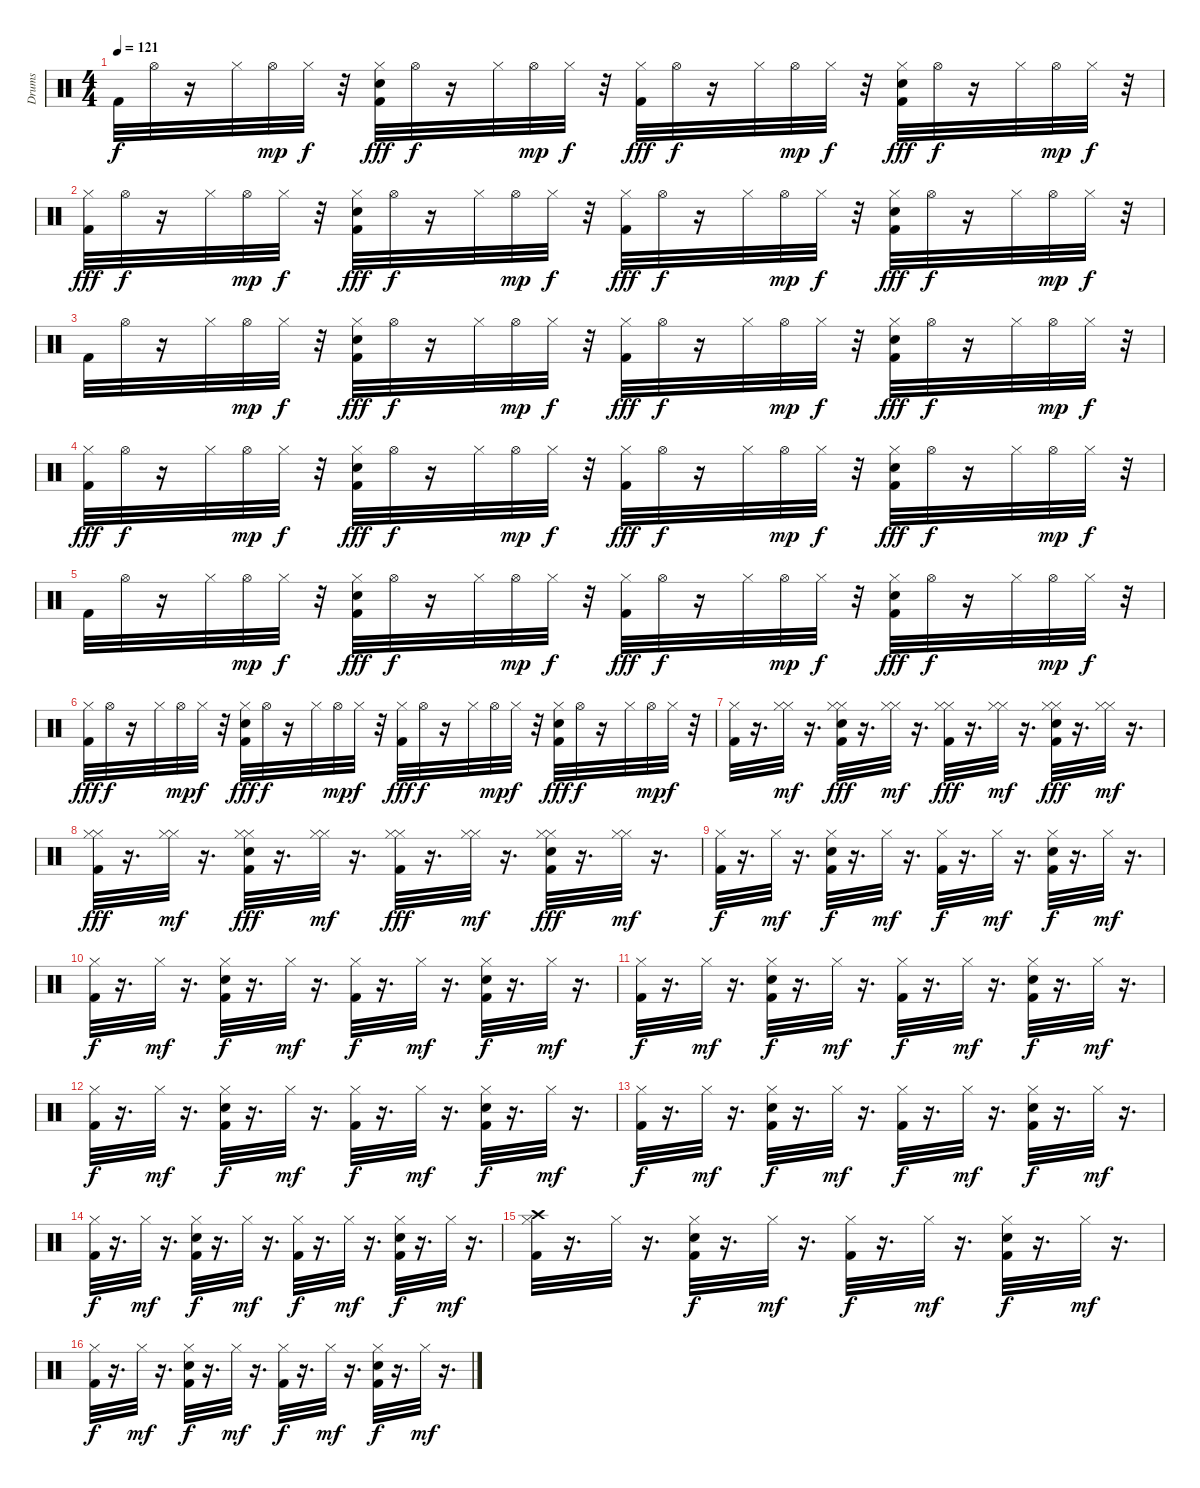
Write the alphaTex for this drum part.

\track ("Drums" "Drums") {instrument percussion}
\staff {score}
\articulation defaults
\ts (4 4)
\tempo 121
\clef neutral
\ks c "Kick (hit) 2".32{dy f} "Hi-Hat (open)".32
r.16 "Hi-Hat (closed)".32 "Hi-Hat (open)".32{dy mp} "Hi-Hat (closed)".32{dy f} r.32 ("Kick (hit) 2" "Snare (hit) 2" "Hi-Hat (closed)").32{dy fff} "Hi-Hat (open)".32{dy f} r.16 "Hi-Hat (closed)".32 "Hi-Hat (open)".32{dy mp} "Hi-Hat (closed)".32{dy f} r.32 ("Kick (hit) 2" "Hi-Hat (closed)").32{dy fff} "Hi-Hat (open)".32{dy f} r.16 "Hi-Hat (closed)".32 "Hi-Hat (open)".32{dy mp} "Hi-Hat (closed)".32{dy f} r.32 ("Kick (hit) 2" "Snare (hit) 2" "Hi-Hat (closed)").32{dy fff} "Hi-Hat (open)".32{dy f} r.16 "Hi-Hat (closed)".32 "Hi-Hat (open)".32{dy mp} "Hi-Hat (closed)".32{dy f} r.32 |
("Kick (hit) 2" "Hi-Hat (closed)").32{dy fff} "Hi-Hat (open)".32{dy f} r.16 "Hi-Hat (closed)".32 "Hi-Hat (open)".32{dy mp} "Hi-Hat (closed)".32{dy f} r.32 ("Kick (hit) 2" "Snare (hit) 2" "Hi-Hat (closed)").32{dy fff} "Hi-Hat (open)".32{dy f} r.16 "Hi-Hat (closed)".32 "Hi-Hat (open)".32{dy mp} "Hi-Hat (closed)".32{dy f} r.32 ("Kick (hit) 2" "Hi-Hat (closed)").32{dy fff} "Hi-Hat (open)".32{dy f} r.16 "Hi-Hat (closed)".32 "Hi-Hat (open)".32{dy mp} "Hi-Hat (closed)".32{dy f} r.32 ("Kick (hit) 2" "Snare (hit) 2" "Hi-Hat (closed)").32{dy fff} "Hi-Hat (open)".32{dy f} r.16 "Hi-Hat (closed)".32 "Hi-Hat (open)".32{dy mp} "Hi-Hat (closed)".32{dy f} r.32 |
"Kick (hit) 2".32 "Hi-Hat (open)".32 r.16 "Hi-Hat (closed)".32 "Hi-Hat (open)".32{dy mp} "Hi-Hat (closed)".32{dy f} r.32 ("Kick (hit) 2" "Snare (hit) 2" "Hi-Hat (closed)").32{dy fff} "Hi-Hat (open)".32{dy f} r.16 "Hi-Hat (closed)".32 "Hi-Hat (open)".32{dy mp} "Hi-Hat (closed)".32{dy f} r.32 ("Kick (hit) 2" "Hi-Hat (closed)").32{dy fff} "Hi-Hat (open)".32{dy f} r.16 "Hi-Hat (closed)".32 "Hi-Hat (open)".32{dy mp} "Hi-Hat (closed)".32{dy f} r.32 ("Kick (hit) 2" "Snare (hit) 2" "Hi-Hat (closed)").32{dy fff} "Hi-Hat (open)".32{dy f} r.16 "Hi-Hat (closed)".32 "Hi-Hat (open)".32{dy mp} "Hi-Hat (closed)".32{dy f} r.32 |
("Kick (hit) 2" "Hi-Hat (closed)").32{dy fff} "Hi-Hat (open)".32{dy f} r.16 "Hi-Hat (closed)".32 "Hi-Hat (open)".32{dy mp} "Hi-Hat (closed)".32{dy f} r.32 ("Kick (hit) 2" "Snare (hit) 2" "Hi-Hat (closed)").32{dy fff} "Hi-Hat (open)".32{dy f} r.16 "Hi-Hat (closed)".32 "Hi-Hat (open)".32{dy mp} "Hi-Hat (closed)".32{dy f} r.32 ("Kick (hit) 2" "Hi-Hat (closed)").32{dy fff} "Hi-Hat (open)".32{dy f} r.16 "Hi-Hat (closed)".32 "Hi-Hat (open)".32{dy mp} "Hi-Hat (closed)".32{dy f} r.32 ("Kick (hit) 2" "Snare (hit) 2" "Hi-Hat (closed)").32{dy fff} "Hi-Hat (open)".32{dy f} r.16 "Hi-Hat (closed)".32 "Hi-Hat (open)".32{dy mp} "Hi-Hat (closed)".32{dy f} r.32 |
"Kick (hit) 2".32 "Hi-Hat (open)".32 r.16 "Hi-Hat (closed)".32 "Hi-Hat (open)".32{dy mp} "Hi-Hat (closed)".32{dy f} r.32 ("Kick (hit) 2" "Snare (hit) 2" "Hi-Hat (closed)").32{dy fff} "Hi-Hat (open)".32{dy f} r.16 "Hi-Hat (closed)".32 "Hi-Hat (open)".32{dy mp} "Hi-Hat (closed)".32{dy f} r.32 ("Kick (hit) 2" "Hi-Hat (closed)").32{dy fff} "Hi-Hat (open)".32{dy f} r.16 "Hi-Hat (closed)".32 "Hi-Hat (open)".32{dy mp} "Hi-Hat (closed)".32{dy f} r.32 ("Kick (hit) 2" "Snare (hit) 2" "Hi-Hat (closed)").32{dy fff} "Hi-Hat (open)".32{dy f} r.16 "Hi-Hat (closed)".32 "Hi-Hat (open)".32{dy mp} "Hi-Hat (closed)".32{dy f} r.32 |
("Kick (hit) 2" "Hi-Hat (closed)").32{dy fff} "Hi-Hat (open)".32{dy f} r.16 "Hi-Hat (closed)".32 "Hi-Hat (open)".32{dy mp} "Hi-Hat (closed)".32{dy f} r.32 ("Kick (hit) 2" "Snare (hit) 2" "Hi-Hat (closed)").32{dy fff} "Hi-Hat (open)".32{dy f} r.16 "Hi-Hat (closed)".32 "Hi-Hat (open)".32{dy mp} "Hi-Hat (closed)".32{dy f} r.32 ("Kick (hit) 2" "Hi-Hat (closed)").32{dy fff} "Hi-Hat (open)".32{dy f} r.16 "Hi-Hat (closed)".32 "Hi-Hat (open)".32{dy mp} "Hi-Hat (closed)".32{dy f} r.32 ("Kick (hit) 2" "Snare (hit) 2" "Hi-Hat (closed)").32{dy fff} "Hi-Hat (open)".32{dy f} r.16 "Hi-Hat (closed)".32 "Hi-Hat (open)".32{dy mp} "Hi-Hat (closed)".32{dy f} r.32 |
("Kick (hit) 2" "Hi-Hat (closed)").32 r.16{d} ("Hi-Hat (closed)" "Hi-Hat (closed)").32{dy mf} r.16{d} ("Kick (hit) 2" "Hi-Hat (closed)" "Snare (hit) 2" "Hi-Hat (closed)").32{dy fff} r.16{d} ("Hi-Hat (closed)" "Hi-Hat (closed)").32{dy mf} r.16{d} ("Hi-Hat (closed)" "Kick (hit) 2" "Hi-Hat (closed)").32{dy fff} r.16{d} ("Hi-Hat (closed)" "Hi-Hat (closed)").32{dy mf} r.16{d} ("Kick (hit) 2" "Hi-Hat (closed)" "Snare (hit) 2" "Hi-Hat (closed)").32{dy fff} r.16{d} ("Hi-Hat (closed)" "Hi-Hat (closed)").32{dy mf} r.16{d} |
("Hi-Hat (closed)" "Kick (hit) 2" "Hi-Hat (closed)").32{dy fff} r.16{d} ("Hi-Hat (closed)" "Hi-Hat (closed)").32{dy mf} r.16{d} ("Kick (hit) 2" "Hi-Hat (closed)" "Snare (hit) 2" "Hi-Hat (closed)").32{dy fff} r.16{d} ("Hi-Hat (closed)" "Hi-Hat (closed)").32{dy mf} r.16{d} ("Hi-Hat (closed)" "Kick (hit) 2" "Hi-Hat (closed)").32{dy fff} r.16{d} ("Hi-Hat (closed)" "Hi-Hat (closed)").32{dy mf} r.16{d} ("Kick (hit) 2" "Hi-Hat (closed)" "Snare (hit) 2" "Hi-Hat (closed)").32{dy fff} r.16{d} ("Hi-Hat (closed)" "Hi-Hat (closed)").32{dy mf} r.16{d} |
("Kick (hit) 2" "Hi-Hat (closed)").32{dy f} r.16{d} "Hi-Hat (closed)".32{dy mf} r.16{d} ("Kick (hit) 2" "Hi-Hat (closed)" "Snare (hit) 2").32{dy f} r.16{d} "Hi-Hat (closed)".32{dy mf} r.16{d} ("Hi-Hat (closed)" "Kick (hit) 2").32{dy f} r.16{d} "Hi-Hat (closed)".32{dy mf} r.16{d} ("Kick (hit) 2" "Hi-Hat (closed)" "Snare (hit) 2").32{dy f} r.16{d} "Hi-Hat (closed)".32{dy mf} r.16{d} |
("Hi-Hat (closed)" "Kick (hit) 2").32{dy f} r.16{d} "Hi-Hat (closed)".32{dy mf} r.16{d} ("Kick (hit) 2" "Hi-Hat (closed)" "Snare (hit) 2").32{dy f} r.16{d} "Hi-Hat (closed)".32{dy mf} r.16{d} ("Hi-Hat (closed)" "Kick (hit) 2").32{dy f} r.16{d} "Hi-Hat (closed)".32{dy mf} r.16{d} ("Kick (hit) 2" "Hi-Hat (closed)" "Snare (hit) 2").32{dy f} r.16{d} "Hi-Hat (closed)".32{dy mf} r.16{d} |
("Kick (hit) 2" "Hi-Hat (closed)").32{dy f} r.16{d} "Hi-Hat (closed)".32{dy mf} r.16{d} ("Kick (hit) 2" "Hi-Hat (closed)" "Snare (hit) 2").32{dy f} r.16{d} "Hi-Hat (closed)".32{dy mf} r.16{d} ("Hi-Hat (closed)" "Kick (hit) 2").32{dy f} r.16{d} "Hi-Hat (closed)".32{dy mf} r.16{d} ("Kick (hit) 2" "Hi-Hat (closed)" "Snare (hit) 2").32{dy f} r.16{d} "Hi-Hat (closed)".32{dy mf} r.16{d} |
("Hi-Hat (closed)" "Kick (hit) 2").32{dy f} r.16{d} "Hi-Hat (closed)".32{dy mf} r.16{d} ("Kick (hit) 2" "Hi-Hat (closed)" "Snare (hit) 2").32{dy f} r.16{d} "Hi-Hat (closed)".32{dy mf} r.16{d} ("Hi-Hat (closed)" "Kick (hit) 2").32{dy f} r.16{d} "Hi-Hat (closed)".32{dy mf} r.16{d} ("Kick (hit) 2" "Hi-Hat (closed)" "Snare (hit) 2").32{dy f} r.16{d} "Hi-Hat (closed)".32{dy mf} r.16{d} |
("Kick (hit) 2" "Hi-Hat (closed)").32{dy f} r.16{d} "Hi-Hat (closed)".32{dy mf} r.16{d} ("Kick (hit) 2" "Hi-Hat (closed)" "Snare (hit) 2").32{dy f} r.16{d} "Hi-Hat (closed)".32{dy mf} r.16{d} ("Hi-Hat (closed)" "Kick (hit) 2").32{dy f} r.16{d} "Hi-Hat (closed)".32{dy mf} r.16{d} ("Kick (hit) 2" "Hi-Hat (closed)" "Snare (hit) 2").32{dy f} r.16{d} "Hi-Hat (closed)".32{dy mf} r.16{d} |
("Hi-Hat (closed)" "Kick (hit) 2").32{dy f} r.16{d} "Hi-Hat (closed)".32{dy mf} r.16{d} ("Kick (hit) 2" "Hi-Hat (closed)" "Snare (hit) 2").32{dy f} r.16{d} "Hi-Hat (closed)".32{dy mf} r.16{d} ("Hi-Hat (closed)" "Kick (hit) 2").32{dy f} r.16{d} "Hi-Hat (closed)".32{dy mf} r.16{d} ("Kick (hit) 2" "Hi-Hat (closed)" "Snare (hit) 2").32{dy f} r.16{d} "Hi-Hat (closed)".32{dy mf} r.16{d} |
("Kick (hit) 2" "Hi-Hat (closed)" "Crash high (hit)").32 r.16{d} "Hi-Hat (closed)".32 r.16{d} ("Kick (hit) 2" "Hi-Hat (closed)" "Snare (hit) 2").32{dy f} r.16{d} "Hi-Hat (closed)".32{dy mf} r.16{d} ("Hi-Hat (closed)" "Kick (hit) 2").32{dy f} r.16{d} "Hi-Hat (closed)".32{dy mf} r.16{d} ("Kick (hit) 2" "Hi-Hat (closed)" "Snare (hit) 2").32{dy f} r.16{d} "Hi-Hat (closed)".32{dy mf} r.16{d} |
("Hi-Hat (closed)" "Kick (hit) 2").32{dy f} r.16{d} "Hi-Hat (closed)".32{dy mf} r.16{d} ("Kick (hit) 2" "Hi-Hat (closed)" "Snare (hit) 2").32{dy f} r.16{d} "Hi-Hat (closed)".32{dy mf} r.16{d} ("Hi-Hat (closed)" "Kick (hit) 2").32{dy f} r.16{d} "Hi-Hat (closed)".32{dy mf} r.16{d} ("Kick (hit) 2" "Hi-Hat (closed)" "Snare (hit) 2").32{dy f} r.16{d} "Hi-Hat (closed)".32{dy mf} r.16{d}
